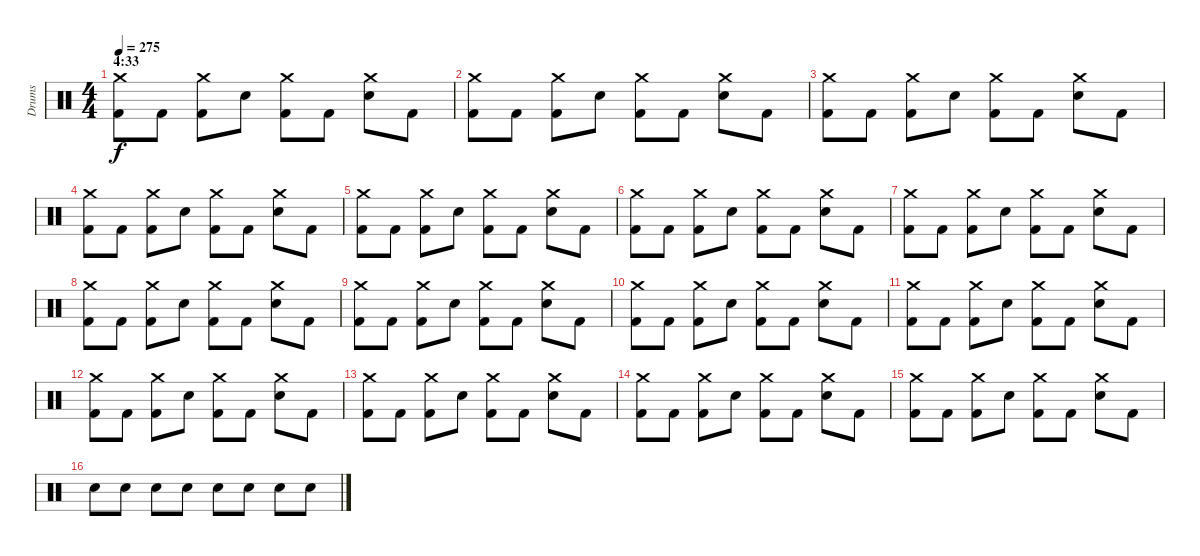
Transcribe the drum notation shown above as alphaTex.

\track ("Drums" "Drums") {instrument percussion}
\staff {score}
\articulation defaults
\ts (4 4)
\section ("" "4:33")
\tempo 275
\clef neutral
\ks c
("Crash medium (hit)" "Kick (hit) 2").8{dy f} "Kick (hit) 2".8 ("Crash medium (hit)" "Kick (hit) 2").8 "Electric Snare (hit)".8 ("Crash medium (hit)" "Kick (hit) 2").8 "Kick (hit) 2".8 ("Crash medium (hit)" "Electric Snare (hit)").8 "Kick (hit) 2".8 |
("Crash medium (hit)" "Kick (hit) 2").8 "Kick (hit) 2".8 ("Crash medium (hit)" "Kick (hit) 2").8 "Electric Snare (hit)".8 ("Crash medium (hit)" "Kick (hit) 2").8 "Kick (hit) 2".8 ("Crash medium (hit)" "Electric Snare (hit)").8 "Kick (hit) 2".8 |
("Crash medium (hit)" "Kick (hit) 2").8 "Kick (hit) 2".8 ("Crash medium (hit)" "Kick (hit) 2").8 "Electric Snare (hit)".8 ("Crash medium (hit)" "Kick (hit) 2").8 "Kick (hit) 2".8 ("Crash medium (hit)" "Electric Snare (hit)").8 "Kick (hit) 2".8 |
("Crash medium (hit)" "Kick (hit) 2").8 "Kick (hit) 2".8 ("Crash medium (hit)" "Kick (hit) 2").8 "Electric Snare (hit)".8 ("Crash medium (hit)" "Kick (hit) 2").8 "Kick (hit) 2".8 ("Crash medium (hit)" "Electric Snare (hit)").8 "Kick (hit) 2".8 |
("Crash medium (hit)" "Kick (hit) 2").8 "Kick (hit) 2".8 ("Crash medium (hit)" "Kick (hit) 2").8 "Electric Snare (hit)".8 ("Crash medium (hit)" "Kick (hit) 2").8 "Kick (hit) 2".8 ("Crash medium (hit)" "Electric Snare (hit)").8 "Kick (hit) 2".8 |
("Crash medium (hit)" "Kick (hit) 2").8 "Kick (hit) 2".8 ("Crash medium (hit)" "Kick (hit) 2").8 "Electric Snare (hit)".8 ("Crash medium (hit)" "Kick (hit) 2").8 "Kick (hit) 2".8 ("Crash medium (hit)" "Electric Snare (hit)").8 "Kick (hit) 2".8 |
("Crash medium (hit)" "Kick (hit) 2").8 "Kick (hit) 2".8 ("Crash medium (hit)" "Kick (hit) 2").8 "Electric Snare (hit)".8 ("Crash medium (hit)" "Kick (hit) 2").8 "Kick (hit) 2".8 ("Crash medium (hit)" "Electric Snare (hit)").8 "Kick (hit) 2".8 |
("Crash medium (hit)" "Kick (hit) 2").8 "Kick (hit) 2".8 ("Crash medium (hit)" "Kick (hit) 2").8 "Electric Snare (hit)".8 ("Crash medium (hit)" "Kick (hit) 2").8 "Kick (hit) 2".8 ("Crash medium (hit)" "Electric Snare (hit)").8 "Kick (hit) 2".8 |
("Crash medium (hit)" "Kick (hit) 2").8 "Kick (hit) 2".8 ("Crash medium (hit)" "Kick (hit) 2").8 "Electric Snare (hit)".8 ("Crash medium (hit)" "Kick (hit) 2").8 "Kick (hit) 2".8 ("Crash medium (hit)" "Electric Snare (hit)").8 "Kick (hit) 2".8 |
("Crash medium (hit)" "Kick (hit) 2").8 "Kick (hit) 2".8 ("Crash medium (hit)" "Kick (hit) 2").8 "Electric Snare (hit)".8 ("Crash medium (hit)" "Kick (hit) 2").8 "Kick (hit) 2".8 ("Crash medium (hit)" "Electric Snare (hit)").8 "Kick (hit) 2".8 |
("Crash medium (hit)" "Kick (hit) 2").8 "Kick (hit) 2".8 ("Crash medium (hit)" "Kick (hit) 2").8 "Electric Snare (hit)".8 ("Crash medium (hit)" "Kick (hit) 2").8 "Kick (hit) 2".8 ("Crash medium (hit)" "Electric Snare (hit)").8 "Kick (hit) 2".8 |
("Crash medium (hit)" "Kick (hit) 2").8 "Kick (hit) 2".8 ("Crash medium (hit)" "Kick (hit) 2").8 "Electric Snare (hit)".8 ("Crash medium (hit)" "Kick (hit) 2").8 "Kick (hit) 2".8 ("Crash medium (hit)" "Electric Snare (hit)").8 "Kick (hit) 2".8 |
("Crash medium (hit)" "Kick (hit) 2").8 "Kick (hit) 2".8 ("Crash medium (hit)" "Kick (hit) 2").8 "Electric Snare (hit)".8 ("Crash medium (hit)" "Kick (hit) 2").8 "Kick (hit) 2".8 ("Crash medium (hit)" "Electric Snare (hit)").8 "Kick (hit) 2".8 |
("Crash medium (hit)" "Kick (hit) 2").8 "Kick (hit) 2".8 ("Crash medium (hit)" "Kick (hit) 2").8 "Electric Snare (hit)".8 ("Crash medium (hit)" "Kick (hit) 2").8 "Kick (hit) 2".8 ("Crash medium (hit)" "Electric Snare (hit)").8 "Kick (hit) 2".8 |
("Crash medium (hit)" "Kick (hit) 2").8 "Kick (hit) 2".8 ("Crash medium (hit)" "Kick (hit) 2").8 "Electric Snare (hit)".8 ("Crash medium (hit)" "Kick (hit) 2").8 "Kick (hit) 2".8 ("Crash medium (hit)" "Electric Snare (hit)").8 "Kick (hit) 2".8 |
"Electric Snare (hit)".8 "Electric Snare (hit)".8 "Electric Snare (hit)".8 "Electric Snare (hit)".8 "Electric Snare (hit)".8 "Electric Snare (hit)".8 "Electric Snare (hit)".8 "Electric Snare (hit)".8
